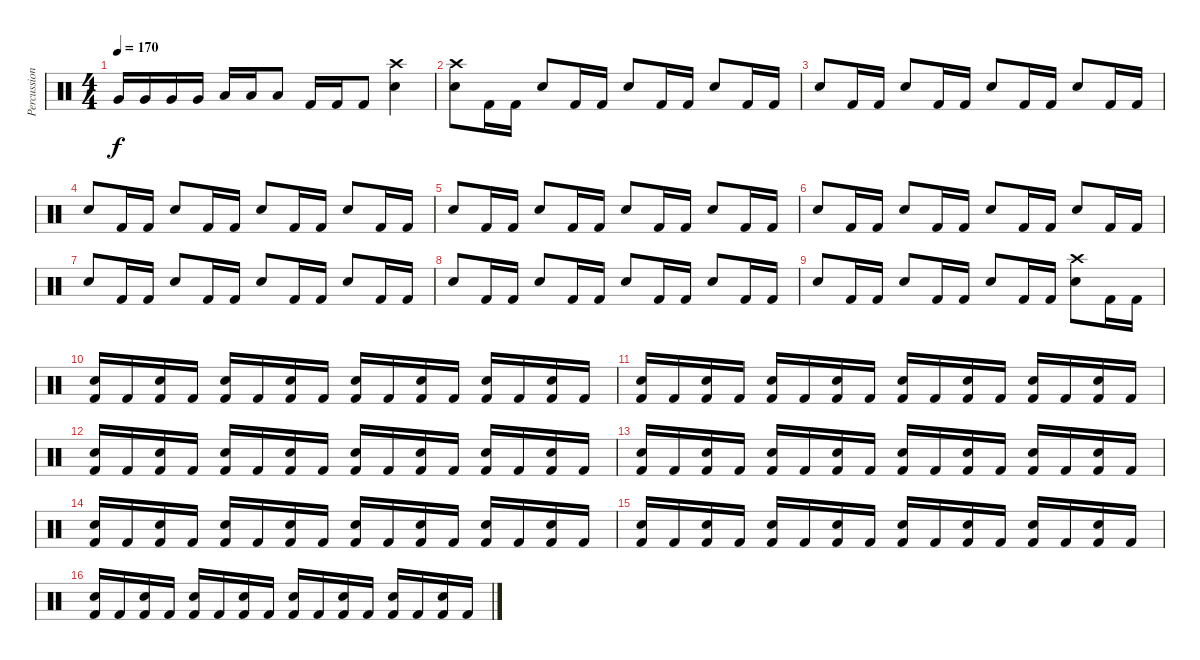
\track ("Percussion" "Percussion") {instrument percussion}
\staff {score}
\articulation defaults
\ts (4 4)
\tempo 170
\clef neutral
\ks c "Very Low Tom (hit)".16{dy f} "Very Low Tom (hit)".16 "Very Low Tom (hit)".16 "Very Low Tom (hit)".16 "Low Floor Tom (hit)".16 "Low Floor Tom (hit)".16 "Low Floor Tom (hit)".8 "Kick (hit) 2".16 "Kick (hit) 2".16 "Kick (hit) 2".8
("Crash high (hit)" "Electric Snare (hit)").4 |
("Crash high (hit)" "Electric Snare (hit)").8 "Kick (hit) 2".16 "Kick (hit) 2".16 "Electric Snare (hit)".8 "Kick (hit) 2".16 "Kick (hit) 2".16 "Electric Snare (hit)".8 "Kick (hit) 2".16 "Kick (hit) 2".16 "Electric Snare (hit)".8 "Kick (hit) 2".16 "Kick (hit) 2".16 |
"Electric Snare (hit)".8 "Kick (hit) 2".16 "Kick (hit) 2".16 "Electric Snare (hit)".8 "Kick (hit) 2".16 "Kick (hit) 2".16 "Electric Snare (hit)".8 "Kick (hit) 2".16 "Kick (hit) 2".16 "Electric Snare (hit)".8 "Kick (hit) 2".16 "Kick (hit) 2".16 |
"Electric Snare (hit)".8 "Kick (hit) 2".16 "Kick (hit) 2".16 "Electric Snare (hit)".8 "Kick (hit) 2".16 "Kick (hit) 2".16 "Electric Snare (hit)".8 "Kick (hit) 2".16 "Kick (hit) 2".16 "Electric Snare (hit)".8 "Kick (hit) 2".16 "Kick (hit) 2".16 |
"Electric Snare (hit)".8 "Kick (hit) 2".16 "Kick (hit) 2".16 "Electric Snare (hit)".8 "Kick (hit) 2".16 "Kick (hit) 2".16 "Electric Snare (hit)".8 "Kick (hit) 2".16 "Kick (hit) 2".16 "Electric Snare (hit)".8 "Kick (hit) 2".16 "Kick (hit) 2".16 |
"Electric Snare (hit)".8 "Kick (hit) 2".16 "Kick (hit) 2".16 "Electric Snare (hit)".8 "Kick (hit) 2".16 "Kick (hit) 2".16 "Electric Snare (hit)".8 "Kick (hit) 2".16 "Kick (hit) 2".16 "Electric Snare (hit)".8 "Kick (hit) 2".16 "Kick (hit) 2".16 |
"Electric Snare (hit)".8 "Kick (hit) 2".16 "Kick (hit) 2".16 "Electric Snare (hit)".8 "Kick (hit) 2".16 "Kick (hit) 2".16 "Electric Snare (hit)".8 "Kick (hit) 2".16 "Kick (hit) 2".16 "Electric Snare (hit)".8 "Kick (hit) 2".16 "Kick (hit) 2".16 |
"Electric Snare (hit)".8 "Kick (hit) 2".16 "Kick (hit) 2".16 "Electric Snare (hit)".8 "Kick (hit) 2".16 "Kick (hit) 2".16 "Electric Snare (hit)".8 "Kick (hit) 2".16 "Kick (hit) 2".16 "Electric Snare (hit)".8 "Kick (hit) 2".16 "Kick (hit) 2".16 |
"Electric Snare (hit)".8 "Kick (hit) 2".16 "Kick (hit) 2".16 "Electric Snare (hit)".8 "Kick (hit) 2".16 "Kick (hit) 2".16 "Electric Snare (hit)".8 "Kick (hit) 2".16 "Kick (hit) 2".16 ("Crash high (hit)" "Electric Snare (hit)").8 "Kick (hit) 2".16 "Kick (hit) 2".16 |
("Electric Snare (hit)" "Kick (hit) 2").16 "Kick (hit) 2".16 ("Electric Snare (hit)" "Kick (hit) 2").16 "Kick (hit) 2".16 ("Electric Snare (hit)" "Kick (hit) 2").16 "Kick (hit) 2".16 ("Electric Snare (hit)" "Kick (hit) 2").16 "Kick (hit) 2".16 ("Electric Snare (hit)" "Kick (hit) 2").16 "Kick (hit) 2".16 ("Electric Snare (hit)" "Kick (hit) 2").16 "Kick (hit) 2".16 ("Electric Snare (hit)" "Kick (hit) 2").16 "Kick (hit) 2".16 ("Electric Snare (hit)" "Kick (hit) 2").16 "Kick (hit) 2".16 |
("Electric Snare (hit)" "Kick (hit) 2").16 "Kick (hit) 2".16 ("Electric Snare (hit)" "Kick (hit) 2").16 "Kick (hit) 2".16 ("Electric Snare (hit)" "Kick (hit) 2").16 "Kick (hit) 2".16 ("Electric Snare (hit)" "Kick (hit) 2").16 "Kick (hit) 2".16 ("Electric Snare (hit)" "Kick (hit) 2").16 "Kick (hit) 2".16 ("Electric Snare (hit)" "Kick (hit) 2").16 "Kick (hit) 2".16 ("Electric Snare (hit)" "Kick (hit) 2").16 "Kick (hit) 2".16 ("Electric Snare (hit)" "Kick (hit) 2").16 "Kick (hit) 2".16 |
("Electric Snare (hit)" "Kick (hit) 2").16 "Kick (hit) 2".16 ("Electric Snare (hit)" "Kick (hit) 2").16 "Kick (hit) 2".16 ("Electric Snare (hit)" "Kick (hit) 2").16 "Kick (hit) 2".16 ("Electric Snare (hit)" "Kick (hit) 2").16 "Kick (hit) 2".16 ("Electric Snare (hit)" "Kick (hit) 2").16 "Kick (hit) 2".16 ("Electric Snare (hit)" "Kick (hit) 2").16 "Kick (hit) 2".16 ("Electric Snare (hit)" "Kick (hit) 2").16 "Kick (hit) 2".16 ("Electric Snare (hit)" "Kick (hit) 2").16 "Kick (hit) 2".16 |
("Electric Snare (hit)" "Kick (hit) 2").16 "Kick (hit) 2".16 ("Electric Snare (hit)" "Kick (hit) 2").16 "Kick (hit) 2".16 ("Electric Snare (hit)" "Kick (hit) 2").16 "Kick (hit) 2".16 ("Electric Snare (hit)" "Kick (hit) 2").16 "Kick (hit) 2".16 ("Electric Snare (hit)" "Kick (hit) 2").16 "Kick (hit) 2".16 ("Electric Snare (hit)" "Kick (hit) 2").16 "Kick (hit) 2".16 ("Electric Snare (hit)" "Kick (hit) 2").16 "Kick (hit) 2".16 ("Electric Snare (hit)" "Kick (hit) 2").16 "Kick (hit) 2".16 |
("Electric Snare (hit)" "Kick (hit) 2").16 "Kick (hit) 2".16 ("Electric Snare (hit)" "Kick (hit) 2").16 "Kick (hit) 2".16 ("Electric Snare (hit)" "Kick (hit) 2").16 "Kick (hit) 2".16 ("Electric Snare (hit)" "Kick (hit) 2").16 "Kick (hit) 2".16 ("Electric Snare (hit)" "Kick (hit) 2").16 "Kick (hit) 2".16 ("Electric Snare (hit)" "Kick (hit) 2").16 "Kick (hit) 2".16 ("Electric Snare (hit)" "Kick (hit) 2").16 "Kick (hit) 2".16 ("Electric Snare (hit)" "Kick (hit) 2").16 "Kick (hit) 2".16 |
("Electric Snare (hit)" "Kick (hit) 2").16 "Kick (hit) 2".16 ("Electric Snare (hit)" "Kick (hit) 2").16 "Kick (hit) 2".16 ("Electric Snare (hit)" "Kick (hit) 2").16 "Kick (hit) 2".16 ("Electric Snare (hit)" "Kick (hit) 2").16 "Kick (hit) 2".16 ("Electric Snare (hit)" "Kick (hit) 2").16 "Kick (hit) 2".16 ("Electric Snare (hit)" "Kick (hit) 2").16 "Kick (hit) 2".16 ("Electric Snare (hit)" "Kick (hit) 2").16 "Kick (hit) 2".16 ("Electric Snare (hit)" "Kick (hit) 2").16 "Kick (hit) 2".16 |
("Electric Snare (hit)" "Kick (hit) 2").16 "Kick (hit) 2".16 ("Electric Snare (hit)" "Kick (hit) 2").16 "Kick (hit) 2".16 ("Electric Snare (hit)" "Kick (hit) 2").16 "Kick (hit) 2".16 ("Electric Snare (hit)" "Kick (hit) 2").16 "Kick (hit) 2".16 ("Electric Snare (hit)" "Kick (hit) 2").16 "Kick (hit) 2".16 ("Electric Snare (hit)" "Kick (hit) 2").16 "Kick (hit) 2".16 ("Electric Snare (hit)" "Kick (hit) 2").16 "Kick (hit) 2".16 ("Electric Snare (hit)" "Kick (hit) 2").16 "Kick (hit) 2".16
